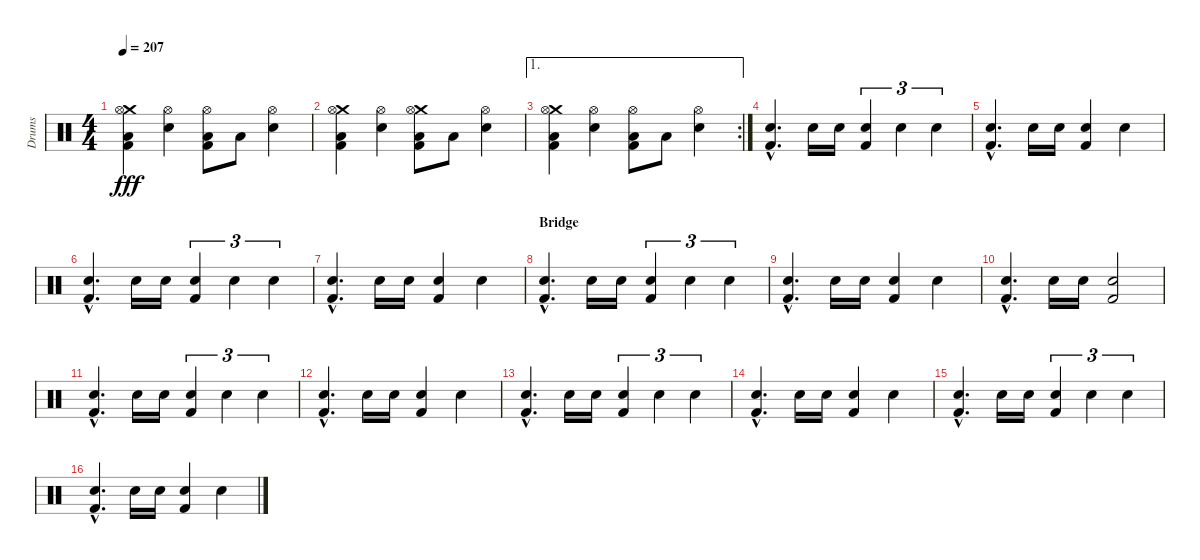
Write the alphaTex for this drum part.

\track ("Drums" "Drums") {instrument percussion}
\staff {score}
\articulation defaults
\ts (4 4)
\tempo 207
\clef neutral
\ks c
("Crash medium (hit)" "Hi-Hat (open)" "Low Floor Tom (hit)" "Kick (hit) 2").4{dy fff} ("Hi-Hat (open)" "Snare (hit) 2").4 ("Hi-Hat (open)" "Low Floor Tom (hit)" "Kick (hit) 2").8 "Low Floor Tom (hit)".8 ("Hi-Hat (open)" "Snare (hit) 2").4 |
("Crash medium (hit)" "Hi-Hat (open)" "Low Floor Tom (hit)" "Kick (hit) 2").4 ("Hi-Hat (open)" "Snare (hit) 2").4 ("Crash medium (hit)" "Hi-Hat (open)" "Low Floor Tom (hit)" "Kick (hit) 2").8 "Low Floor Tom (hit)".8 ("Hi-Hat (open)" "Snare (hit) 2").4 |
\ae 1
\rc 2
("Crash medium (hit)" "Hi-Hat (open)" "Low Floor Tom (hit)" "Kick (hit) 2").4 ("Hi-Hat (open)" "Snare (hit) 2").4 ("Hi-Hat (open)" "Low Floor Tom (hit)" "Kick (hit) 2").8 "Low Floor Tom (hit)".8 ("Hi-Hat (open)" "Snare (hit) 2").4 |
("Snare (hit) 2"{hac} "Kick (hit) 2"{hac}).4{d} "Snare (hit) 2".16 "Snare (hit) 2".16 ("Snare (hit) 2" "Kick (hit) 2").4{tu (3 2)} "Snare (hit) 2".4{tu (3 2)} "Snare (hit) 2".4{tu (3 2)} |
("Snare (hit) 2"{hac} "Kick (hit) 2"{hac}).4{d} "Snare (hit) 2".16 "Snare (hit) 2".16 ("Snare (hit) 2" "Kick (hit) 2").4 "Snare (hit) 2".4 |
("Snare (hit) 2"{hac} "Kick (hit) 2"{hac}).4{d} "Snare (hit) 2".16 "Snare (hit) 2".16 ("Snare (hit) 2" "Kick (hit) 2").4{tu (3 2)} "Snare (hit) 2".4{tu (3 2)} "Snare (hit) 2".4{tu (3 2)} |
("Snare (hit) 2"{hac} "Kick (hit) 2"{hac}).4{d} "Snare (hit) 2".16 "Snare (hit) 2".16 ("Snare (hit) 2" "Kick (hit) 2").4 "Snare (hit) 2".4 |
\section ("" "Bridge")
("Snare (hit) 2"{hac} "Kick (hit) 2"{hac}).4{d} "Snare (hit) 2".16 "Snare (hit) 2".16 ("Snare (hit) 2" "Kick (hit) 2").4{tu (3 2)} "Snare (hit) 2".4{tu (3 2)} "Snare (hit) 2".4{tu (3 2)} |
("Snare (hit) 2"{hac} "Kick (hit) 2"{hac}).4{d} "Snare (hit) 2".16 "Snare (hit) 2".16 ("Snare (hit) 2" "Kick (hit) 2").4 "Snare (hit) 2".4 |
("Snare (hit) 2"{hac} "Kick (hit) 2"{hac}).4{d} "Snare (hit) 2".16 "Snare (hit) 2".16 ("Snare (hit) 2" "Kick (hit) 2").2 |
("Snare (hit) 2"{hac} "Kick (hit) 2"{hac}).4{d} "Snare (hit) 2".16 "Snare (hit) 2".16 ("Snare (hit) 2" "Kick (hit) 2").4{tu (3 2)} "Snare (hit) 2".4{tu (3 2)} "Snare (hit) 2".4{tu (3 2)} |
("Snare (hit) 2"{hac} "Kick (hit) 2"{hac}).4{d} "Snare (hit) 2".16 "Snare (hit) 2".16 ("Snare (hit) 2" "Kick (hit) 2").4 "Snare (hit) 2".4 |
("Snare (hit) 2"{hac} "Kick (hit) 2"{hac}).4{d} "Snare (hit) 2".16 "Snare (hit) 2".16 ("Snare (hit) 2" "Kick (hit) 2").4{tu (3 2)} "Snare (hit) 2".4{tu (3 2)} "Snare (hit) 2".4{tu (3 2)} |
("Snare (hit) 2"{hac} "Kick (hit) 2"{hac}).4{d} "Snare (hit) 2".16 "Snare (hit) 2".16 ("Snare (hit) 2" "Kick (hit) 2").4 "Snare (hit) 2".4 |
("Snare (hit) 2"{hac} "Kick (hit) 2"{hac}).4{d} "Snare (hit) 2".16 "Snare (hit) 2".16 ("Snare (hit) 2" "Kick (hit) 2").4{tu (3 2)} "Snare (hit) 2".4{tu (3 2)} "Snare (hit) 2".4{tu (3 2)} |
("Snare (hit) 2"{hac} "Kick (hit) 2"{hac}).4{d} "Snare (hit) 2".16 "Snare (hit) 2".16 ("Snare (hit) 2" "Kick (hit) 2").4 "Snare (hit) 2".4
